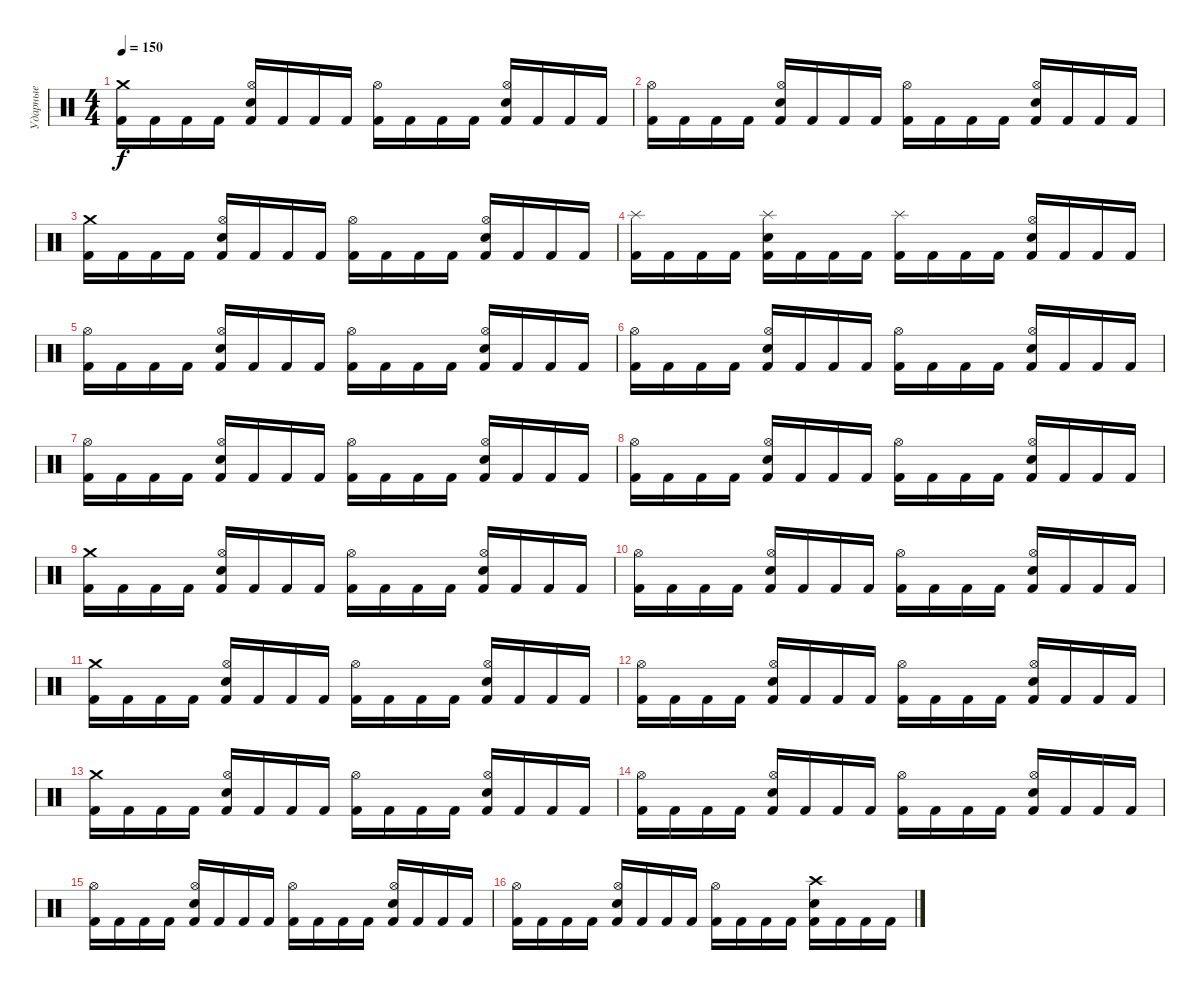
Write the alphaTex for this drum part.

\track ("Ударные" "Ударные") {instrument percussion}
\staff {score}
\articulation defaults
\ts (4 4)
\tempo 150
\clef neutral
\ks c
("Crash medium (hit)" "Kick (hit) 2").16{dy f} "Kick (hit) 2".16 "Kick (hit) 2".16 "Kick (hit) 2".16 ("Hi-Hat (open)" "Electric Snare (hit)" "Kick (hit) 2").16 "Kick (hit) 2".16 "Kick (hit) 2".16 "Kick (hit) 2".16 ("Hi-Hat (open)" "Kick (hit) 2").16 "Kick (hit) 2".16 "Kick (hit) 2".16 "Kick (hit) 2".16 ("Hi-Hat (open)" "Electric Snare (hit)" "Kick (hit) 2").16 "Kick (hit) 2".16 "Kick (hit) 2".16 "Kick (hit) 2".16 |
("Hi-Hat (open)" "Kick (hit) 2").16 "Kick (hit) 2".16 "Kick (hit) 2".16 "Kick (hit) 2".16 ("Hi-Hat (open)" "Electric Snare (hit)" "Kick (hit) 2").16 "Kick (hit) 2".16 "Kick (hit) 2".16 "Kick (hit) 2".16 ("Hi-Hat (open)" "Kick (hit) 2").16 "Kick (hit) 2".16 "Kick (hit) 2".16 "Kick (hit) 2".16 ("Hi-Hat (open)" "Electric Snare (hit)" "Kick (hit) 2").16 "Kick (hit) 2".16 "Kick (hit) 2".16 "Kick (hit) 2".16 |
("Crash medium (hit)" "Kick (hit) 2").16 "Kick (hit) 2".16 "Kick (hit) 2".16 "Kick (hit) 2".16 ("Hi-Hat (open)" "Electric Snare (hit)" "Kick (hit) 2").16 "Kick (hit) 2".16 "Kick (hit) 2".16 "Kick (hit) 2".16 ("Hi-Hat (open)" "Kick (hit) 2").16 "Kick (hit) 2".16 "Kick (hit) 2".16 "Kick (hit) 2".16 ("Hi-Hat (open)" "Electric Snare (hit)" "Kick (hit) 2").16 "Kick (hit) 2".16 "Kick (hit) 2".16 "Kick (hit) 2".16 |
("Splash (hit)" "Kick (hit) 2").16 "Kick (hit) 2".16 "Kick (hit) 2".16 "Kick (hit) 2".16 ("Splash (hit)" "Electric Snare (hit)" "Kick (hit) 2").16 "Kick (hit) 2".16 "Kick (hit) 2".16 "Kick (hit) 2".16 ("Splash (hit)" "Kick (hit) 2").16 "Kick (hit) 2".16 "Kick (hit) 2".16 "Kick (hit) 2".16 ("Hi-Hat (open)" "Electric Snare (hit)" "Kick (hit) 2").16 "Kick (hit) 2".16 "Kick (hit) 2".16 "Kick (hit) 2".16 |
("Hi-Hat (open)" "Kick (hit) 2").16 "Kick (hit) 2".16 "Kick (hit) 2".16 "Kick (hit) 2".16 ("Hi-Hat (open)" "Electric Snare (hit)" "Kick (hit) 2").16 "Kick (hit) 2".16 "Kick (hit) 2".16 "Kick (hit) 2".16 ("Hi-Hat (open)" "Kick (hit) 2").16 "Kick (hit) 2".16 "Kick (hit) 2".16 "Kick (hit) 2".16 ("Hi-Hat (open)" "Electric Snare (hit)" "Kick (hit) 2").16 "Kick (hit) 2".16 "Kick (hit) 2".16 "Kick (hit) 2".16 |
("Hi-Hat (open)" "Kick (hit) 2").16 "Kick (hit) 2".16 "Kick (hit) 2".16 "Kick (hit) 2".16 ("Hi-Hat (open)" "Electric Snare (hit)" "Kick (hit) 2").16 "Kick (hit) 2".16 "Kick (hit) 2".16 "Kick (hit) 2".16 ("Hi-Hat (open)" "Kick (hit) 2").16 "Kick (hit) 2".16 "Kick (hit) 2".16 "Kick (hit) 2".16 ("Hi-Hat (open)" "Electric Snare (hit)" "Kick (hit) 2").16 "Kick (hit) 2".16 "Kick (hit) 2".16 "Kick (hit) 2".16 |
("Hi-Hat (open)" "Kick (hit) 2").16 "Kick (hit) 2".16 "Kick (hit) 2".16 "Kick (hit) 2".16 ("Hi-Hat (open)" "Electric Snare (hit)" "Kick (hit) 2").16 "Kick (hit) 2".16 "Kick (hit) 2".16 "Kick (hit) 2".16 ("Hi-Hat (open)" "Kick (hit) 2").16 "Kick (hit) 2".16 "Kick (hit) 2".16 "Kick (hit) 2".16 ("Hi-Hat (open)" "Electric Snare (hit)" "Kick (hit) 2").16 "Kick (hit) 2".16 "Kick (hit) 2".16 "Kick (hit) 2".16 |
("Hi-Hat (open)" "Kick (hit) 2").16 "Kick (hit) 2".16 "Kick (hit) 2".16 "Kick (hit) 2".16 ("Hi-Hat (open)" "Electric Snare (hit)" "Kick (hit) 2").16 "Kick (hit) 2".16 "Kick (hit) 2".16 "Kick (hit) 2".16 ("Hi-Hat (open)" "Kick (hit) 2").16 "Kick (hit) 2".16 "Kick (hit) 2".16 "Kick (hit) 2".16 ("Hi-Hat (open)" "Electric Snare (hit)" "Kick (hit) 2").16 "Kick (hit) 2".16 "Kick (hit) 2".16 "Kick (hit) 2".16 |
("Crash medium (hit)" "Kick (hit) 2").16 "Kick (hit) 2".16 "Kick (hit) 2".16 "Kick (hit) 2".16 ("Hi-Hat (open)" "Electric Snare (hit)" "Kick (hit) 2").16 "Kick (hit) 2".16 "Kick (hit) 2".16 "Kick (hit) 2".16 ("Hi-Hat (open)" "Kick (hit) 2").16 "Kick (hit) 2".16 "Kick (hit) 2".16 "Kick (hit) 2".16 ("Hi-Hat (open)" "Electric Snare (hit)" "Kick (hit) 2").16 "Kick (hit) 2".16 "Kick (hit) 2".16 "Kick (hit) 2".16 |
("Hi-Hat (open)" "Kick (hit) 2").16 "Kick (hit) 2".16 "Kick (hit) 2".16 "Kick (hit) 2".16 ("Hi-Hat (open)" "Electric Snare (hit)" "Kick (hit) 2").16 "Kick (hit) 2".16 "Kick (hit) 2".16 "Kick (hit) 2".16 ("Hi-Hat (open)" "Kick (hit) 2").16 "Kick (hit) 2".16 "Kick (hit) 2".16 "Kick (hit) 2".16 ("Hi-Hat (open)" "Electric Snare (hit)" "Kick (hit) 2").16 "Kick (hit) 2".16 "Kick (hit) 2".16 "Kick (hit) 2".16 |
("Crash medium (hit)" "Kick (hit) 2").16 "Kick (hit) 2".16 "Kick (hit) 2".16 "Kick (hit) 2".16 ("Hi-Hat (open)" "Electric Snare (hit)" "Kick (hit) 2").16 "Kick (hit) 2".16 "Kick (hit) 2".16 "Kick (hit) 2".16 ("Hi-Hat (open)" "Kick (hit) 2").16 "Kick (hit) 2".16 "Kick (hit) 2".16 "Kick (hit) 2".16 ("Hi-Hat (open)" "Electric Snare (hit)" "Kick (hit) 2").16 "Kick (hit) 2".16 "Kick (hit) 2".16 "Kick (hit) 2".16 |
("Hi-Hat (open)" "Kick (hit) 2").16 "Kick (hit) 2".16 "Kick (hit) 2".16 "Kick (hit) 2".16 ("Hi-Hat (open)" "Electric Snare (hit)" "Kick (hit) 2").16 "Kick (hit) 2".16 "Kick (hit) 2".16 "Kick (hit) 2".16 ("Hi-Hat (open)" "Kick (hit) 2").16 "Kick (hit) 2".16 "Kick (hit) 2".16 "Kick (hit) 2".16 ("Hi-Hat (open)" "Electric Snare (hit)" "Kick (hit) 2").16 "Kick (hit) 2".16 "Kick (hit) 2".16 "Kick (hit) 2".16 |
("Crash medium (hit)" "Kick (hit) 2").16 "Kick (hit) 2".16 "Kick (hit) 2".16 "Kick (hit) 2".16 ("Hi-Hat (open)" "Electric Snare (hit)" "Kick (hit) 2").16 "Kick (hit) 2".16 "Kick (hit) 2".16 "Kick (hit) 2".16 ("Hi-Hat (open)" "Kick (hit) 2").16 "Kick (hit) 2".16 "Kick (hit) 2".16 "Kick (hit) 2".16 ("Hi-Hat (open)" "Electric Snare (hit)" "Kick (hit) 2").16 "Kick (hit) 2".16 "Kick (hit) 2".16 "Kick (hit) 2".16 |
("Hi-Hat (open)" "Kick (hit) 2").16 "Kick (hit) 2".16 "Kick (hit) 2".16 "Kick (hit) 2".16 ("Hi-Hat (open)" "Electric Snare (hit)" "Kick (hit) 2").16 "Kick (hit) 2".16 "Kick (hit) 2".16 "Kick (hit) 2".16 ("Hi-Hat (open)" "Kick (hit) 2").16 "Kick (hit) 2".16 "Kick (hit) 2".16 "Kick (hit) 2".16 ("Hi-Hat (open)" "Electric Snare (hit)" "Kick (hit) 2").16 "Kick (hit) 2".16 "Kick (hit) 2".16 "Kick (hit) 2".16 |
("Hi-Hat (open)" "Kick (hit) 2").16 "Kick (hit) 2".16 "Kick (hit) 2".16 "Kick (hit) 2".16 ("Hi-Hat (open)" "Electric Snare (hit)" "Kick (hit) 2").16 "Kick (hit) 2".16 "Kick (hit) 2".16 "Kick (hit) 2".16 ("Hi-Hat (open)" "Kick (hit) 2").16 "Kick (hit) 2".16 "Kick (hit) 2".16 "Kick (hit) 2".16 ("Hi-Hat (open)" "Electric Snare (hit)" "Kick (hit) 2").16 "Kick (hit) 2".16 "Kick (hit) 2".16 "Kick (hit) 2".16 |
("Hi-Hat (open)" "Kick (hit) 2").16 "Kick (hit) 2".16 "Kick (hit) 2".16 "Kick (hit) 2".16 ("Hi-Hat (open)" "Electric Snare (hit)" "Kick (hit) 2").16 "Kick (hit) 2".16 "Kick (hit) 2".16 "Kick (hit) 2".16 ("Hi-Hat (open)" "Kick (hit) 2").16 "Kick (hit) 2".16 "Kick (hit) 2".16 "Kick (hit) 2".16 ("Crash high (hit)" "Electric Snare (hit)" "Kick (hit) 2").16 "Kick (hit) 2".16 "Kick (hit) 2".16 "Kick (hit) 2".16
